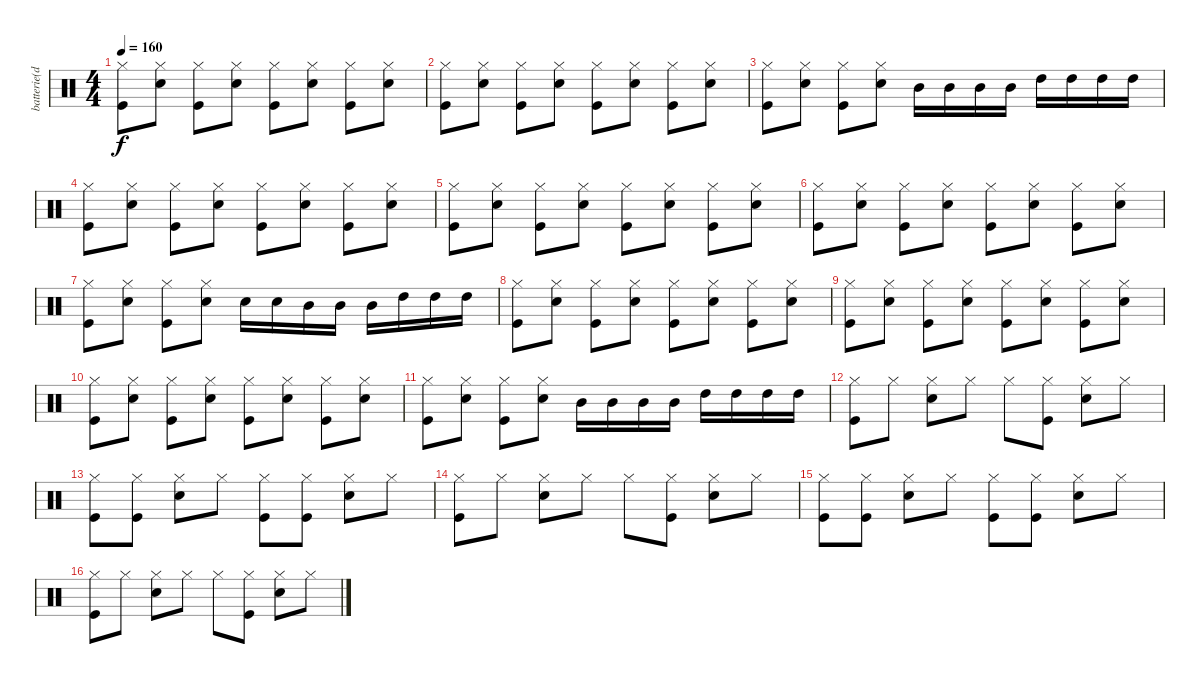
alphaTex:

\track ("batterie(dave)" "batterie(d") {instrument percussion}
\staff {score}
\articulation defaults
\ts (4 4)
\tempo 160
\clef neutral
\ks c
("Hi-Hat (closed)" "Kick (hit)").8{dy f} ("Hi-Hat (closed)" "Snare (hit) 2").8 ("Hi-Hat (closed)" "Kick (hit)").8 ("Hi-Hat (closed)" "Snare (hit) 2").8 ("Hi-Hat (closed)" "Kick (hit)").8 ("Hi-Hat (closed)" "Snare (hit) 2").8 ("Hi-Hat (closed)" "Kick (hit)").8 ("Hi-Hat (closed)" "Snare (hit) 2").8 |
("Hi-Hat (closed)" "Kick (hit)").8 ("Hi-Hat (closed)" "Snare (hit) 2").8 ("Hi-Hat (closed)" "Kick (hit)").8 ("Hi-Hat (closed)" "Snare (hit) 2").8 ("Hi-Hat (closed)" "Kick (hit)").8 ("Hi-Hat (closed)" "Snare (hit) 2").8 ("Hi-Hat (closed)" "Kick (hit)").8 ("Hi-Hat (closed)" "Snare (hit) 2").8 |
("Hi-Hat (closed)" "Kick (hit)").8 ("Hi-Hat (closed)" "Snare (hit) 2").8 ("Hi-Hat (closed)" "Kick (hit)").8 ("Hi-Hat (closed)" "Snare (hit) 2").8 "Mid Tom (hit)".16 "Mid Tom (hit)".16 "Mid Tom (hit)".16 "Mid Tom (hit)".16 "High Tom (hit)".16 "High Tom (hit)".16 "High Tom (hit)".16 "High Tom (hit)".16 |
("Hi-Hat (closed)" "Kick (hit)").8 ("Hi-Hat (closed)" "Snare (hit) 2").8 ("Hi-Hat (closed)" "Kick (hit)").8 ("Hi-Hat (closed)" "Snare (hit) 2").8 ("Hi-Hat (closed)" "Kick (hit)").8 ("Hi-Hat (closed)" "Snare (hit) 2").8 ("Hi-Hat (closed)" "Kick (hit)").8 ("Hi-Hat (closed)" "Snare (hit) 2").8 |
("Hi-Hat (closed)" "Kick (hit)").8 ("Hi-Hat (closed)" "Snare (hit) 2").8 ("Hi-Hat (closed)" "Kick (hit)").8 ("Hi-Hat (closed)" "Snare (hit) 2").8 ("Hi-Hat (closed)" "Kick (hit)").8 ("Hi-Hat (closed)" "Snare (hit) 2").8 ("Hi-Hat (closed)" "Kick (hit)").8 ("Hi-Hat (closed)" "Snare (hit) 2").8 |
("Hi-Hat (closed)" "Kick (hit)").8 ("Hi-Hat (closed)" "Snare (hit) 2").8 ("Hi-Hat (closed)" "Kick (hit)").8 ("Hi-Hat (closed)" "Snare (hit) 2").8 ("Hi-Hat (closed)" "Kick (hit)").8 ("Hi-Hat (closed)" "Snare (hit) 2").8 ("Hi-Hat (closed)" "Kick (hit)").8 ("Hi-Hat (closed)" "Snare (hit) 2").8 |
("Hi-Hat (closed)" "Kick (hit)").8 ("Hi-Hat (closed)" "Snare (hit) 2").8 ("Hi-Hat (closed)" "Kick (hit)").8 ("Hi-Hat (closed)" "Snare (hit) 2").8 "Snare (hit) 2".16 "Snare (hit) 2".16 "Mid Tom (hit)".16 "Mid Tom (hit)".16 "Mid Tom (hit)".16 "High Tom (hit)".16 "High Tom (hit)".16 "High Tom (hit)".16 |
("Hi-Hat (closed)" "Kick (hit)").8 ("Hi-Hat (closed)" "Snare (hit) 2").8 ("Hi-Hat (closed)" "Kick (hit)").8 ("Hi-Hat (closed)" "Snare (hit) 2").8 ("Hi-Hat (closed)" "Kick (hit)").8 ("Hi-Hat (closed)" "Snare (hit) 2").8 ("Hi-Hat (closed)" "Kick (hit)").8 ("Hi-Hat (closed)" "Snare (hit) 2").8 |
("Hi-Hat (closed)" "Kick (hit)").8 ("Hi-Hat (closed)" "Snare (hit) 2").8 ("Hi-Hat (closed)" "Kick (hit)").8 ("Hi-Hat (closed)" "Snare (hit) 2").8 ("Hi-Hat (closed)" "Kick (hit)").8 ("Hi-Hat (closed)" "Snare (hit) 2").8 ("Hi-Hat (closed)" "Kick (hit)").8 ("Hi-Hat (closed)" "Snare (hit) 2").8 |
("Hi-Hat (closed)" "Kick (hit)").8 ("Hi-Hat (closed)" "Snare (hit) 2").8 ("Hi-Hat (closed)" "Kick (hit)").8 ("Hi-Hat (closed)" "Snare (hit) 2").8 ("Hi-Hat (closed)" "Kick (hit)").8 ("Hi-Hat (closed)" "Snare (hit) 2").8 ("Hi-Hat (closed)" "Kick (hit)").8 ("Hi-Hat (closed)" "Snare (hit) 2").8 |
("Hi-Hat (closed)" "Kick (hit)").8 ("Hi-Hat (closed)" "Snare (hit) 2").8 ("Hi-Hat (closed)" "Kick (hit)").8 ("Hi-Hat (closed)" "Snare (hit) 2").8 "Mid Tom (hit)".16 "Mid Tom (hit)".16 "Mid Tom (hit)".16 "Mid Tom (hit)".16 "High Tom (hit)".16 "High Tom (hit)".16 "High Tom (hit)".16 "High Tom (hit)".16 |
("Hi-Hat (closed)" "Kick (hit)").8 "Hi-Hat (closed)".8 ("Hi-Hat (closed)" "Snare (hit) 2").8 "Hi-Hat (closed)".8 "Hi-Hat (closed)".8 ("Hi-Hat (closed)" "Kick (hit)").8 ("Hi-Hat (closed)" "Snare (hit) 2").8 "Hi-Hat (closed)".8 |
("Hi-Hat (closed)" "Kick (hit)").8 ("Hi-Hat (closed)" "Kick (hit)").8 ("Hi-Hat (closed)" "Snare (hit) 2").8 "Hi-Hat (closed)".8 ("Hi-Hat (closed)" "Kick (hit)").8 ("Hi-Hat (closed)" "Kick (hit)").8 ("Hi-Hat (closed)" "Snare (hit) 2").8 "Hi-Hat (closed)".8 |
("Hi-Hat (closed)" "Kick (hit)").8 "Hi-Hat (closed)".8 ("Hi-Hat (closed)" "Snare (hit) 2").8 "Hi-Hat (closed)".8 "Hi-Hat (closed)".8 ("Hi-Hat (closed)" "Kick (hit)").8 ("Hi-Hat (closed)" "Snare (hit) 2").8 "Hi-Hat (closed)".8 |
("Hi-Hat (closed)" "Kick (hit)").8 ("Hi-Hat (closed)" "Kick (hit)").8 ("Hi-Hat (closed)" "Snare (hit) 2").8 "Hi-Hat (closed)".8 ("Hi-Hat (closed)" "Kick (hit)").8 ("Hi-Hat (closed)" "Kick (hit)").8 ("Hi-Hat (closed)" "Snare (hit) 2").8 "Hi-Hat (closed)".8 |
("Hi-Hat (closed)" "Kick (hit)").8 "Hi-Hat (closed)".8 ("Hi-Hat (closed)" "Snare (hit) 2").8 "Hi-Hat (closed)".8 "Hi-Hat (closed)".8 ("Hi-Hat (closed)" "Kick (hit)").8 ("Hi-Hat (closed)" "Snare (hit) 2").8 "Hi-Hat (closed)".8
